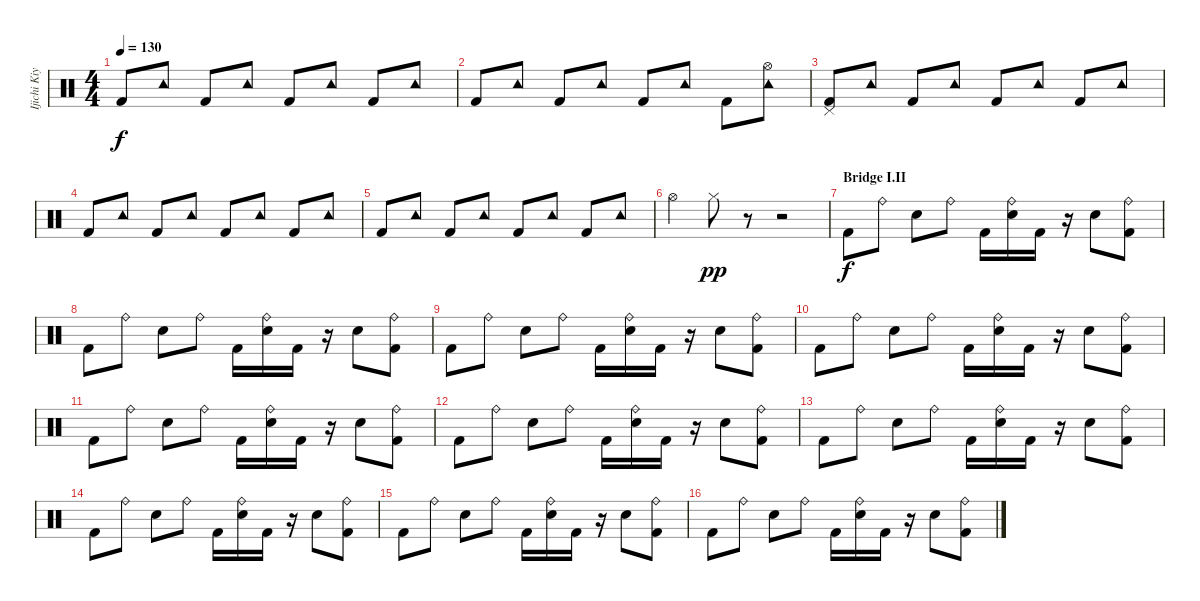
\track ("Ijichi Kiyoshi (Drums)" "Ijichi Kiy") {instrument percussion}
\staff {score}
\articulation defaults
\ts (4 4)
\tempo 130
\clef neutral
\ks c "Kick (hit) 2".8{dy f} "Tambourine (hit)".8 "Kick (hit) 2".8 "Tambourine (hit)".8 "Kick (hit) 2".8 "Tambourine (hit)".8 "Kick (hit) 2".8 "Tambourine (hit)".8
|
"Kick (hit) 2".8 "Tambourine (hit)".8 "Kick (hit) 2".8 "Tambourine (hit)".8 "Kick (hit) 2".8 "Tambourine (hit)".8 "Kick (hit) 2".8 ("Hi-Hat (open)" "Tambourine (hit)").8 |
("Pedal Hi-Hat (hit)" "Kick (hit) 2").8 "Tambourine (hit)".8 "Kick (hit) 2".8 "Tambourine (hit)".8 "Kick (hit) 2".8 "Tambourine (hit)".8 "Kick (hit) 2".8 "Tambourine (hit)".8 |
"Kick (hit) 2".8 "Tambourine (hit)".8 "Kick (hit) 2".8 "Tambourine (hit)".8 "Kick (hit) 2".8 "Tambourine (hit)".8 "Kick (hit) 2".8 "Tambourine (hit)".8 |
"Kick (hit) 2".8 "Tambourine (hit)".8 "Kick (hit) 2".8 "Tambourine (hit)".8 "Kick (hit) 2".8 "Tambourine (hit)".8 "Kick (hit) 2".8 "Tambourine (hit)".8 |
"Hi-Hat (open)".4 "Hi-Hat (closed)".8{dy pp} r.8 r.2 |
\section ("" "Bridge I.II")
"Kick (hit) 2".8{dy f} "Ride (bell)".8 "Snare (hit) 2".8 "Ride (bell)".8 "Kick (hit) 2".16 ("Ride (bell)" "Snare (hit) 2").16 "Kick (hit) 2".16 r.16 "Snare (hit) 2".8 ("Ride (bell)" "Kick (hit) 2").8 |
"Kick (hit) 2".8 "Ride (bell)".8 "Snare (hit) 2".8 "Ride (bell)".8 "Kick (hit) 2".16 ("Ride (bell)" "Snare (hit) 2").16 "Kick (hit) 2".16 r.16 "Snare (hit) 2".8 ("Ride (bell)" "Kick (hit) 2").8 |
"Kick (hit) 2".8 "Ride (bell)".8 "Snare (hit) 2".8 "Ride (bell)".8 "Kick (hit) 2".16 ("Ride (bell)" "Snare (hit) 2").16 "Kick (hit) 2".16 r.16 "Snare (hit) 2".8 ("Ride (bell)" "Kick (hit) 2").8 |
"Kick (hit) 2".8 "Ride (bell)".8 "Snare (hit) 2".8 "Ride (bell)".8 "Kick (hit) 2".16 ("Ride (bell)" "Snare (hit) 2").16 "Kick (hit) 2".16 r.16 "Snare (hit) 2".8 ("Ride (bell)" "Kick (hit) 2").8 |
"Kick (hit) 2".8 "Ride (bell)".8 "Snare (hit) 2".8 "Ride (bell)".8 "Kick (hit) 2".16 ("Ride (bell)" "Snare (hit) 2").16 "Kick (hit) 2".16 r.16 "Snare (hit) 2".8 ("Ride (bell)" "Kick (hit) 2").8 |
"Kick (hit) 2".8 "Ride (bell)".8 "Snare (hit) 2".8 "Ride (bell)".8 "Kick (hit) 2".16 ("Ride (bell)" "Snare (hit) 2").16 "Kick (hit) 2".16 r.16 "Snare (hit) 2".8 ("Ride (bell)" "Kick (hit) 2").8 |
"Kick (hit) 2".8 "Ride (bell)".8 "Snare (hit) 2".8 "Ride (bell)".8 "Kick (hit) 2".16 ("Ride (bell)" "Snare (hit) 2").16 "Kick (hit) 2".16 r.16 "Snare (hit) 2".8 ("Ride (bell)" "Kick (hit) 2").8 |
"Kick (hit) 2".8 "Ride (bell)".8 "Snare (hit) 2".8 "Ride (bell)".8 "Kick (hit) 2".16 ("Ride (bell)" "Snare (hit) 2").16 "Kick (hit) 2".16 r.16 "Snare (hit) 2".8 ("Ride (bell)" "Kick (hit) 2").8 |
"Kick (hit) 2".8 "Ride (bell)".8 "Snare (hit) 2".8 "Ride (bell)".8 "Kick (hit) 2".16 ("Ride (bell)" "Snare (hit) 2").16 "Kick (hit) 2".16 r.16 "Snare (hit) 2".8 ("Ride (bell)" "Kick (hit) 2").8 |
"Kick (hit) 2".8 "Ride (bell)".8 "Snare (hit) 2".8 "Ride (bell)".8 "Kick (hit) 2".16 ("Ride (bell)" "Snare (hit) 2").16 "Kick (hit) 2".16 r.16 "Snare (hit) 2".8 ("Ride (bell)" "Kick (hit) 2").8
